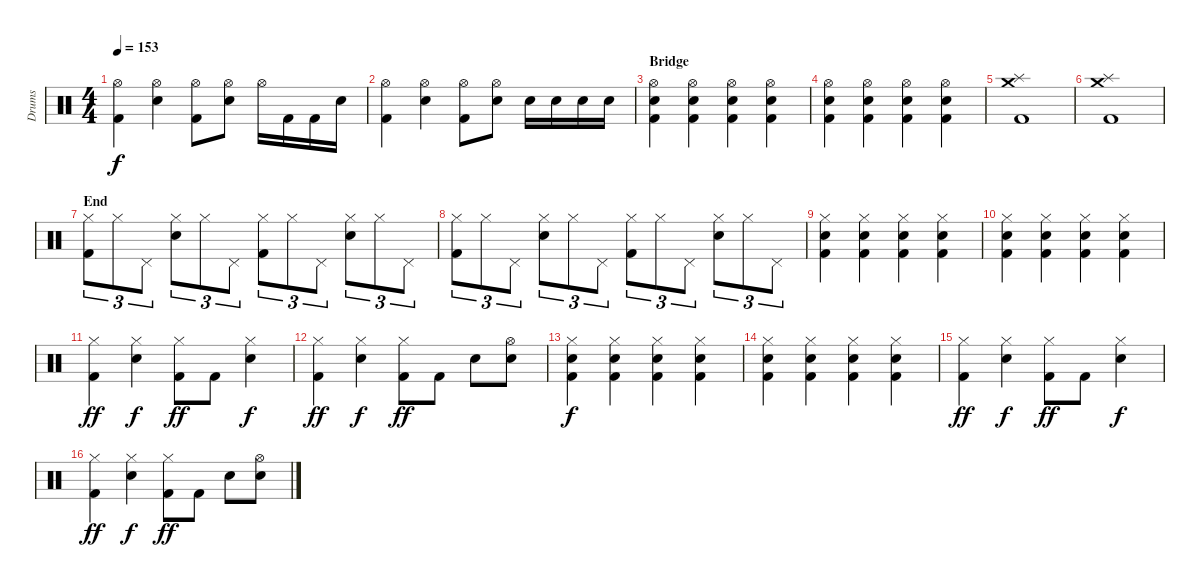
\track ("Drums" "Drums") {instrument percussion}
\staff {score}
\articulation defaults
\ts (4 4)
\tempo 153
\clef neutral
\ks c
("Hi-Hat (open)" "Kick (hit) 2").4{dy f} ("Hi-Hat (open)" "Electric Snare (hit)").4 ("Hi-Hat (open)" "Kick (hit) 2").8 ("Hi-Hat (open)" "Electric Snare (hit)").8 "Hi-Hat (open)".16 "Kick (hit) 2".16 "Kick (hit) 2".16 "Electric Snare (hit)".16 |
("Hi-Hat (open)" "Kick (hit) 2").4 ("Hi-Hat (open)" "Electric Snare (hit)").4 ("Hi-Hat (open)" "Kick (hit) 2").8 ("Hi-Hat (open)" "Electric Snare (hit)").8 "Electric Snare (hit)".16 "Electric Snare (hit)".16 "Electric Snare (hit)".16 "Electric Snare (hit)".16 |
\section ("" "Bridge ")
("Hi-Hat (open)" "Electric Snare (hit)" "Kick (hit) 2").4 ("Hi-Hat (open)" "Electric Snare (hit)" "Kick (hit) 2").4 ("Hi-Hat (open)" "Electric Snare (hit)" "Kick (hit) 2").4 ("Hi-Hat (open)" "Electric Snare (hit)" "Kick (hit) 2").4 |
("Hi-Hat (open)" "Electric Snare (hit)" "Kick (hit) 2").4 ("Hi-Hat (open)" "Electric Snare (hit)" "Kick (hit) 2").4 ("Hi-Hat (open)" "Electric Snare (hit)" "Kick (hit) 2").4 ("Hi-Hat (open)" "Electric Snare (hit)" "Kick (hit) 2").4 |
("Splash (hit)" "Crash medium (hit)" "Kick (hit) 2").1 |
("Splash (hit)" "Crash medium (hit)" "Kick (hit) 2").1 |
\section ("" "End")
("Hi-Hat (closed)" "Kick (hit) 2").8{tu (3 2)} "Hi-Hat (closed)".8{tu (3 2)} "Pedal Hi-Hat (hit)".8{tu (3 2)} ("Hi-Hat (closed)" "Electric Snare (hit)").8{tu (3 2)} "Hi-Hat (closed)".8{tu (3 2)} "Pedal Hi-Hat (hit)".8{tu (3 2)} ("Hi-Hat (closed)" "Kick (hit) 2").8{tu (3 2)} "Hi-Hat (closed)".8{tu (3 2)} "Pedal Hi-Hat (hit)".8{tu (3 2)} ("Hi-Hat (closed)" "Electric Snare (hit)").8{tu (3 2)} "Hi-Hat (closed)".8{tu (3 2)} "Pedal Hi-Hat (hit)".8{tu (3 2)} |
("Hi-Hat (closed)" "Kick (hit) 2").8{tu (3 2)} "Hi-Hat (closed)".8{tu (3 2)} "Pedal Hi-Hat (hit)".8{tu (3 2)} ("Hi-Hat (closed)" "Electric Snare (hit)").8{tu (3 2)} "Hi-Hat (closed)".8{tu (3 2)} "Pedal Hi-Hat (hit)".8{tu (3 2)} ("Hi-Hat (closed)" "Kick (hit) 2").8{tu (3 2)} "Hi-Hat (closed)".8{tu (3 2)} "Pedal Hi-Hat (hit)".8{tu (3 2)} ("Hi-Hat (closed)" "Electric Snare (hit)").8{tu (3 2)} "Hi-Hat (closed)".8{tu (3 2)} "Pedal Hi-Hat (hit)".8{tu (3 2)} |
("Hi-Hat (closed)" "Electric Snare (hit)" "Kick (hit) 2").4 ("Hi-Hat (closed)" "Electric Snare (hit)" "Kick (hit) 2").4 ("Hi-Hat (closed)" "Electric Snare (hit)" "Kick (hit) 2").4 ("Hi-Hat (closed)" "Electric Snare (hit)" "Kick (hit) 2").4 |
("Hi-Hat (closed)" "Electric Snare (hit)" "Kick (hit) 2").4 ("Hi-Hat (closed)" "Electric Snare (hit)" "Kick (hit) 2").4 ("Hi-Hat (closed)" "Electric Snare (hit)" "Kick (hit) 2").4 ("Hi-Hat (closed)" "Electric Snare (hit)" "Kick (hit) 2").4 |
("Hi-Hat (closed)" "Kick (hit) 2").4{dy ff} ("Hi-Hat (closed)" "Electric Snare (hit)").4{dy f} ("Hi-Hat (closed)" "Kick (hit) 2").8{dy ff} "Kick (hit) 2".8 ("Hi-Hat (closed)" "Electric Snare (hit)").4{dy f} |
("Hi-Hat (closed)" "Kick (hit) 2").4{dy ff} ("Hi-Hat (closed)" "Electric Snare (hit)").4{dy f} ("Hi-Hat (closed)" "Kick (hit) 2").8{dy ff} "Kick (hit) 2".8 "Electric Snare (hit)".8 ("Hi-Hat (open)" "Electric Snare (hit)").8 |
("Hi-Hat (closed)" "Electric Snare (hit)" "Kick (hit) 2").4{dy f} ("Hi-Hat (closed)" "Electric Snare (hit)" "Kick (hit) 2").4 ("Hi-Hat (closed)" "Electric Snare (hit)" "Kick (hit) 2").4 ("Hi-Hat (closed)" "Electric Snare (hit)" "Kick (hit) 2").4 |
("Hi-Hat (closed)" "Electric Snare (hit)" "Kick (hit) 2").4 ("Hi-Hat (closed)" "Electric Snare (hit)" "Kick (hit) 2").4 ("Hi-Hat (closed)" "Electric Snare (hit)" "Kick (hit) 2").4 ("Hi-Hat (closed)" "Electric Snare (hit)" "Kick (hit) 2").4 |
("Hi-Hat (closed)" "Kick (hit) 2").4{dy ff} ("Hi-Hat (closed)" "Electric Snare (hit)").4{dy f} ("Hi-Hat (closed)" "Kick (hit) 2").8{dy ff} "Kick (hit) 2".8 ("Hi-Hat (closed)" "Electric Snare (hit)").4{dy f} |
("Hi-Hat (closed)" "Kick (hit) 2").4{dy ff} ("Hi-Hat (closed)" "Electric Snare (hit)").4{dy f} ("Hi-Hat (closed)" "Kick (hit) 2").8{dy ff} "Kick (hit) 2".8 "Electric Snare (hit)".8 ("Hi-Hat (open)" "Electric Snare (hit)").8
